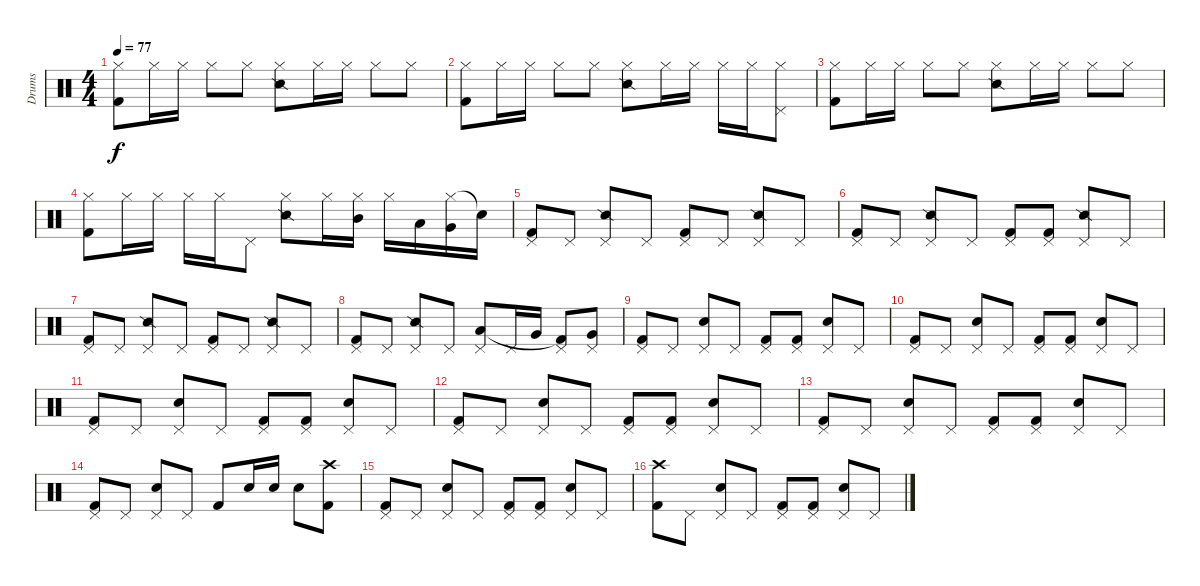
\track ("Drums" "Drums") {instrument percussion}
\staff {score}
\articulation defaults
\ts (4 4)
\tempo 77
\clef neutral
\ks c
("Hi-Hat (closed)" "Kick (hit) 2").8{dy f} "Hi-Hat (closed)".16 "Hi-Hat (closed)".16 "Hi-Hat (closed)".8 "Hi-Hat (closed)".8 ("Hi-Hat (closed)" "Snare (side stick) 2").8 "Hi-Hat (closed)".16 "Hi-Hat (closed)".16 "Hi-Hat (closed)".8 "Hi-Hat (closed)".8 |
("Hi-Hat (closed)" "Kick (hit) 2").8 "Hi-Hat (closed)".16 "Hi-Hat (closed)".16 "Hi-Hat (closed)".8 "Hi-Hat (closed)".8 ("Hi-Hat (closed)" "Snare (side stick) 2").8 "Hi-Hat (closed)".16 "Hi-Hat (closed)".16 "Hi-Hat (closed)".16 "Hi-Hat (closed)".16 ("Pedal Hi-Hat (hit)" "Hi-Hat (closed)").8 |
("Hi-Hat (closed)" "Kick (hit) 2").8 "Hi-Hat (closed)".16 "Hi-Hat (closed)".16 "Hi-Hat (closed)".8 "Hi-Hat (closed)".8 ("Hi-Hat (closed)" "Snare (side stick) 2").8 "Hi-Hat (closed)".16 "Hi-Hat (closed)".16 "Hi-Hat (closed)".8 "Hi-Hat (closed)".8 |
("Hi-Hat (closed)" "Kick (hit) 2").8 "Hi-Hat (closed)".16 "Hi-Hat (closed)".16 "Hi-Hat (closed)".16 "Hi-Hat (closed)".16 "Pedal Hi-Hat (hit)".8 ("Hi-Hat (closed)" "Snare (side stick) 2").8 "Hi-Hat (closed)".16 ("Hi-Hat (closed)" "Mid Tom (hit)").16 "Hi-Hat (closed)".16 "Low Tom (hit)".16 ("Hi-Hat (closed)" "Very Low Tom (hit)").16 "Snare (hit)"{t}.16 |
("Pedal Hi-Hat (hit)" "Kick (hit) 2").8 "Pedal Hi-Hat (hit)".8 ("Pedal Hi-Hat (hit)" "Snare (side stick) 2").8 "Pedal Hi-Hat (hit)".8 ("Pedal Hi-Hat (hit)" "Kick (hit) 2").8 "Pedal Hi-Hat (hit)".8 ("Pedal Hi-Hat (hit)" "Snare (side stick) 2").8 "Pedal Hi-Hat (hit)".8 |
("Pedal Hi-Hat (hit)" "Kick (hit) 2").8 "Pedal Hi-Hat (hit)".8 ("Pedal Hi-Hat (hit)" "Snare (side stick) 2").8 "Pedal Hi-Hat (hit)".8 ("Pedal Hi-Hat (hit)" "Kick (hit) 2").8 ("Pedal Hi-Hat (hit)" "Kick (hit) 2").8 ("Pedal Hi-Hat (hit)" "Snare (side stick) 2").8 "Pedal Hi-Hat (hit)".8 |
("Pedal Hi-Hat (hit)" "Kick (hit) 2").8 "Pedal Hi-Hat (hit)".8 ("Pedal Hi-Hat (hit)" "Snare (side stick) 2").8 "Pedal Hi-Hat (hit)".8 ("Pedal Hi-Hat (hit)" "Kick (hit) 2").8 "Pedal Hi-Hat (hit)".8 ("Pedal Hi-Hat (hit)" "Snare (side stick) 2").8 "Pedal Hi-Hat (hit)".8 |
("Pedal Hi-Hat (hit)" "Kick (hit) 2").8 "Pedal Hi-Hat (hit)".8 ("Pedal Hi-Hat (hit)" "Snare (side stick) 2").8 "Pedal Hi-Hat (hit)".8 ("Pedal Hi-Hat (hit)" "Low Tom (hit)").8 "Pedal Hi-Hat (hit)".16 "Very Low Tom (hit)".16 ("Pedal Hi-Hat (hit)" "Kick (hit) 2"{t}).8 ("Pedal Hi-Hat (hit)" "Very Low Tom (hit)").8 |
("Pedal Hi-Hat (hit)" "Kick (hit) 2").8 "Pedal Hi-Hat (hit)".8 ("Pedal Hi-Hat (hit)" "Electric Snare (hit)").8 "Pedal Hi-Hat (hit)".8 ("Pedal Hi-Hat (hit)" "Kick (hit) 2").8 ("Pedal Hi-Hat (hit)" "Kick (hit) 2").8 ("Pedal Hi-Hat (hit)" "Electric Snare (hit)").8 "Pedal Hi-Hat (hit)".8 |
("Pedal Hi-Hat (hit)" "Kick (hit) 2").8 "Pedal Hi-Hat (hit)".8 ("Pedal Hi-Hat (hit)" "Electric Snare (hit)").8 "Pedal Hi-Hat (hit)".8 ("Pedal Hi-Hat (hit)" "Kick (hit) 2").8 ("Pedal Hi-Hat (hit)" "Kick (hit) 2").8 ("Pedal Hi-Hat (hit)" "Electric Snare (hit)").8 "Pedal Hi-Hat (hit)".8 |
("Pedal Hi-Hat (hit)" "Kick (hit) 2").8 "Pedal Hi-Hat (hit)".8 ("Pedal Hi-Hat (hit)" "Electric Snare (hit)").8 "Pedal Hi-Hat (hit)".8 ("Pedal Hi-Hat (hit)" "Kick (hit) 2").8 ("Pedal Hi-Hat (hit)" "Kick (hit) 2").8 ("Pedal Hi-Hat (hit)" "Electric Snare (hit)").8 "Pedal Hi-Hat (hit)".8 |
("Pedal Hi-Hat (hit)" "Kick (hit) 2").8 "Pedal Hi-Hat (hit)".8 ("Pedal Hi-Hat (hit)" "Electric Snare (hit)").8 "Pedal Hi-Hat (hit)".8 ("Pedal Hi-Hat (hit)" "Kick (hit) 2").8 ("Pedal Hi-Hat (hit)" "Kick (hit) 2").8 ("Pedal Hi-Hat (hit)" "Electric Snare (hit)").8 "Pedal Hi-Hat (hit)".8 |
("Pedal Hi-Hat (hit)" "Kick (hit) 2").8 "Pedal Hi-Hat (hit)".8 ("Pedal Hi-Hat (hit)" "Electric Snare (hit)").8 "Pedal Hi-Hat (hit)".8 ("Pedal Hi-Hat (hit)" "Kick (hit) 2").8 ("Pedal Hi-Hat (hit)" "Kick (hit) 2").8 ("Pedal Hi-Hat (hit)" "Electric Snare (hit)").8 "Pedal Hi-Hat (hit)".8 |
("Pedal Hi-Hat (hit)" "Kick (hit) 2").8 "Pedal Hi-Hat (hit)".8 ("Pedal Hi-Hat (hit)" "Electric Snare (hit)").8 "Pedal Hi-Hat (hit)".8 "Kick (hit) 2".8 "Electric Snare (hit)".16 "Electric Snare (hit)".16 "Electric Snare (hit)".8 ("Crash high (hit)" "Kick (hit) 2").8 |
("Pedal Hi-Hat (hit)" "Kick (hit) 2").8 "Pedal Hi-Hat (hit)".8 ("Pedal Hi-Hat (hit)" "Electric Snare (hit)").8 "Pedal Hi-Hat (hit)".8 ("Pedal Hi-Hat (hit)" "Kick (hit) 2").8 ("Pedal Hi-Hat (hit)" "Kick (hit) 2").8 ("Pedal Hi-Hat (hit)" "Electric Snare (hit)").8 "Pedal Hi-Hat (hit)".8 |
("Crash high (hit)" "Kick (hit) 2").8 "Pedal Hi-Hat (hit)".8 ("Pedal Hi-Hat (hit)" "Electric Snare (hit)").8 "Pedal Hi-Hat (hit)".8 ("Pedal Hi-Hat (hit)" "Kick (hit) 2").8 ("Pedal Hi-Hat (hit)" "Kick (hit) 2").8 ("Pedal Hi-Hat (hit)" "Electric Snare (hit)").8 "Pedal Hi-Hat (hit)".8
